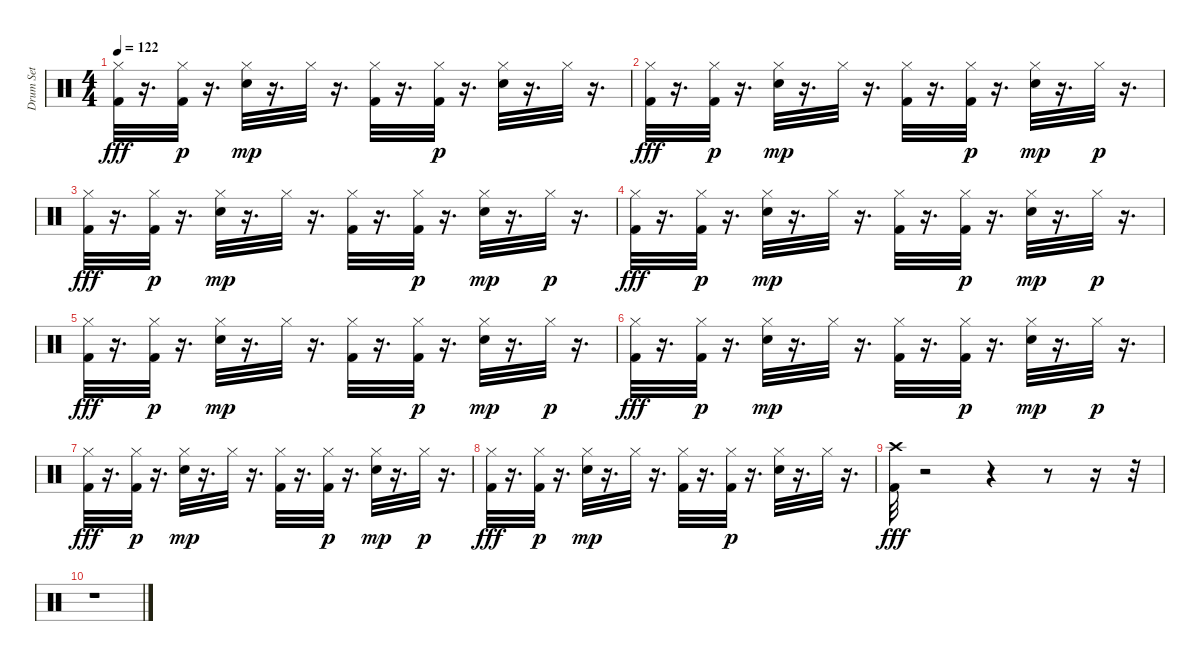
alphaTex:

\track ("Drum Set" "Drum Set") {instrument percussion}
\staff {score}
\articulation defaults
\ts (4 4)
\tempo 122
\clef neutral
\ks c
("Hi-Hat (closed)" "Kick (hit) 2").32{dy fff} r.16{d} ("Kick (hit) 2" "Hi-Hat (closed)").32{dy p} r.16{d} ("Electric Snare (hit)" "Hi-Hat (closed)").32{dy mp} r.16{d} "Hi-Hat (closed)".32 r.16{d} ("Kick (hit) 2" "Hi-Hat (closed)").32 r.16{d} ("Kick (hit) 2" "Hi-Hat (closed)").32{dy p} r.16{d} ("Electric Snare (hit)" "Hi-Hat (closed)").32 r.16{d} "Hi-Hat (closed)".32 r.16{d} |
("Hi-Hat (closed)" "Kick (hit) 2").32{dy fff} r.16{d} ("Kick (hit) 2" "Hi-Hat (closed)").32{dy p} r.16{d} ("Electric Snare (hit)" "Hi-Hat (closed)").32{dy mp} r.16{d} "Hi-Hat (closed)".32 r.16{d} ("Kick (hit) 2" "Hi-Hat (closed)").32 r.16{d} ("Kick (hit) 2" "Hi-Hat (closed)").32{dy p} r.16{d} ("Electric Snare (hit)" "Hi-Hat (closed)").32{dy mp} r.16{d} "Hi-Hat (closed)".32{dy p} r.16{d} |
("Hi-Hat (closed)" "Kick (hit) 2").32{dy fff} r.16{d} ("Kick (hit) 2" "Hi-Hat (closed)").32{dy p} r.16{d} ("Electric Snare (hit)" "Hi-Hat (closed)").32{dy mp} r.16{d} "Hi-Hat (closed)".32 r.16{d} ("Kick (hit) 2" "Hi-Hat (closed)").32 r.16{d} ("Kick (hit) 2" "Hi-Hat (closed)").32{dy p} r.16{d} ("Electric Snare (hit)" "Hi-Hat (closed)").32{dy mp} r.16{d} "Hi-Hat (closed)".32{dy p} r.16{d} |
("Hi-Hat (closed)" "Kick (hit) 2").32{dy fff} r.16{d} ("Kick (hit) 2" "Hi-Hat (closed)").32{dy p} r.16{d} ("Electric Snare (hit)" "Hi-Hat (closed)").32{dy mp} r.16{d} "Hi-Hat (closed)".32 r.16{d} ("Kick (hit) 2" "Hi-Hat (closed)").32 r.16{d} ("Kick (hit) 2" "Hi-Hat (closed)").32{dy p} r.16{d} ("Electric Snare (hit)" "Hi-Hat (closed)").32{dy mp} r.16{d} "Hi-Hat (closed)".32{dy p} r.16{d} |
("Hi-Hat (closed)" "Kick (hit) 2").32{dy fff} r.16{d} ("Kick (hit) 2" "Hi-Hat (closed)").32{dy p} r.16{d} ("Electric Snare (hit)" "Hi-Hat (closed)").32{dy mp} r.16{d} "Hi-Hat (closed)".32 r.16{d} ("Kick (hit) 2" "Hi-Hat (closed)").32 r.16{d} ("Kick (hit) 2" "Hi-Hat (closed)").32{dy p} r.16{d} ("Electric Snare (hit)" "Hi-Hat (closed)").32{dy mp} r.16{d} "Hi-Hat (closed)".32{dy p} r.16{d} |
("Hi-Hat (closed)" "Kick (hit) 2").32{dy fff} r.16{d} ("Kick (hit) 2" "Hi-Hat (closed)").32{dy p} r.16{d} ("Electric Snare (hit)" "Hi-Hat (closed)").32{dy mp} r.16{d} "Hi-Hat (closed)".32 r.16{d} ("Kick (hit) 2" "Hi-Hat (closed)").32 r.16{d} ("Kick (hit) 2" "Hi-Hat (closed)").32{dy p} r.16{d} ("Electric Snare (hit)" "Hi-Hat (closed)").32{dy mp} r.16{d} "Hi-Hat (closed)".32{dy p} r.16{d} |
("Hi-Hat (closed)" "Kick (hit) 2").32{dy fff} r.16{d} ("Kick (hit) 2" "Hi-Hat (closed)").32{dy p} r.16{d} ("Electric Snare (hit)" "Hi-Hat (closed)").32{dy mp} r.16{d} "Hi-Hat (closed)".32 r.16{d} ("Kick (hit) 2" "Hi-Hat (closed)").32 r.16{d} ("Kick (hit) 2" "Hi-Hat (closed)").32{dy p} r.16{d} ("Electric Snare (hit)" "Hi-Hat (closed)").32{dy mp} r.16{d} "Hi-Hat (closed)".32{dy p} r.16{d} |
("Hi-Hat (closed)" "Kick (hit) 2").32{dy fff} r.16{d} ("Kick (hit) 2" "Hi-Hat (closed)").32{dy p} r.16{d} ("Electric Snare (hit)" "Hi-Hat (closed)").32{dy mp} r.16{d} "Hi-Hat (closed)".32 r.16{d} ("Kick (hit) 2" "Hi-Hat (closed)").32 r.16{d} ("Kick (hit) 2" "Hi-Hat (closed)").32{dy p} r.16{d} ("Electric Snare (hit)" "Hi-Hat (closed)").32 r.16{d} "Hi-Hat (closed)".32 r.16{d} |
("Crash high (hit)" "Kick (hit) 2").32{dy fff} r.2 r.4 r.8 r.16 r.32 |
r.1
